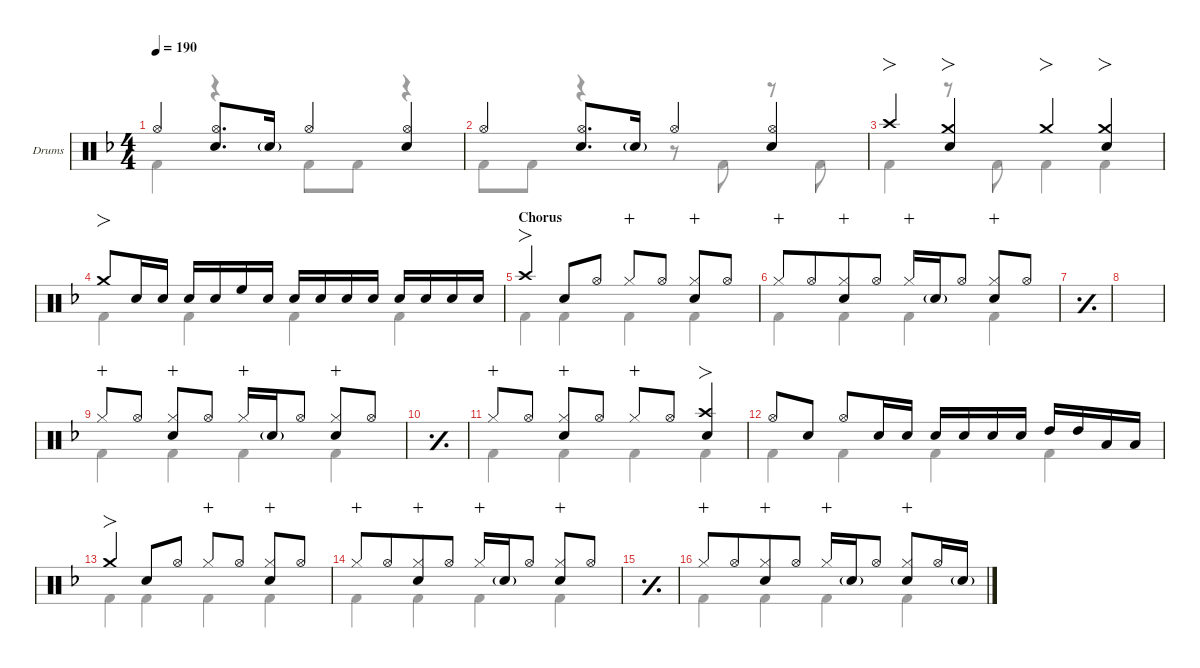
\defaultSystemsLayout 4
\hideDynamics
\bracketExtendMode nobrackets
\firstSystemTrackNameOrientation horizontal
\track ("Drums" "Drums") {defaultSystemsLayout 4 instrument percussion}
\staff {score}
\articulation defaults
\voice
\ts (4 4)
\tempo 190
\clef neutral
\scale
0.266618
\ks dminor "Hi-Hat (open)"{acc forcenatural}.4{dy f}
("Hi-Hat (open)"{acc forcenatural} "Snare (hit) 2"{acc forcenatural}).8{d} "Snare (hit) 2"{g acc forcenatural}.16{dy mf} "Hi-Hat (open)"{acc forcenatural}.4{dy f} ("Hi-Hat (open)"{acc forcenatural} "Snare (hit) 2"{acc forcenatural}).4 |
\scale
0.244461 "Hi-Hat (open)"{acc forcenatural}.4 ("Hi-Hat (open)"{acc forcenatural} "Snare (hit) 2"{acc forcenatural}).8{d} "Snare (hit) 2"{g acc forcenatural}.16{dy mf} "Hi-Hat (open)"{acc forcenatural}.4{dy f} ("Hi-Hat (open)"{acc forcenatural} "Snare (hit) 2"{acc forcenatural}).4 |
\scale
0.244461 "Crash high (hit)"{acc forcenatural}.4{fo} ("Snare (hit) 2"{acc forcenatural} "Crash medium (hit)"{acc forcenatural}).4{fo} "Crash medium (hit)"{acc forcenatural}.4{fo} ("Snare (hit) 2"{acc forcenatural} "Crash medium (hit)"{acc forcenatural}).4{fo} |
\scale
0.244461 "Crash medium (hit)"{acc forcenatural}.8{fo} "Snare (hit) 2"{acc forcenatural}.16 "Snare (hit) 2"{acc forcenatural}.16{dy mf beam split} "Snare (hit) 2"{acc forcenatural}.16{dy f} "Snare (hit) 2"{acc forcenatural}.16{dy mp} "High Floor Tom (hit)"{acc forcenatural}.16{dy f} "Snare (hit) 2"{acc forcenatural}.16{dy mp} "Snare (hit) 2"{acc forcenatural}.16{dy f} "Snare (hit) 2"{acc forcenatural}.16{dy mp} "Snare (hit) 2"{acc forcenatural}.16{dy mf} "Snare (hit) 2"{acc forcenatural}.16{dy mp beam split} "Snare (hit) 2"{acc forcenatural}.16{dy f} "Snare (hit) 2"{acc forcenatural}.16{dy mp} "Snare (hit) 2"{acc forcenatural}.16{dy mf} "Snare (hit) 2"{acc forcenatural}.16{dy mp} |
\section ("" "Chorus")
\scale
0.266618 "Crash high (hit)"{acc forcenatural}.4{fo dy f} "Snare (hit) 2"{acc forcenatural}.8 "Hi-Hat (open)"{acc forcenatural}.8 "Hi-Hat (closed)"{acc forcenatural}.8{dy mp wahc} "Hi-Hat (open)"{acc forcenatural}.8{dy f} ("Hi-Hat (closed)"{acc forcenatural} "Snare (hit) 2"{acc forcenatural}).8{wahc} "Hi-Hat (open)"{acc forcenatural}.8 |
\scale
0.244461 "Hi-Hat (closed)"{acc forcenatural}.8{dy mp wahc beam merge} "Hi-Hat (open)"{acc forcenatural}.8{dy f beam merge} ("Hi-Hat (closed)"{acc forcenatural} "Snare (hit) 2"{acc forcenatural}).8{wahc beam merge} "Hi-Hat (open)"{acc forcenatural}.8 "Hi-Hat (closed)"{acc forcenatural}.16{dy mp wahc} "Snare (hit) 2"{g acc forcenatural}.16{dy mf} "Hi-Hat (open)"{acc forcenatural}.8{dy f beam split} ("Hi-Hat (closed)"{acc forcenatural} "Snare (hit) 2"{acc forcenatural}).8{wahc} "Hi-Hat (open)"{acc forcenatural}.8 |
\simile simple
\scale
0.24446 |
\scale
0.244461 |
\simile none
\scale
0.266618 "Hi-Hat (closed)"{acc forcenatural}.8{dy mp wahc} "Hi-Hat (open)"{acc forcenatural}.8{dy f} ("Hi-Hat (closed)"{acc forcenatural} "Snare (hit) 2"{acc forcenatural}).8{wahc} "Hi-Hat (open)"{acc forcenatural}.8 "Hi-Hat (closed)"{acc forcenatural}.16{dy mp wahc} "Snare (hit) 2"{g acc forcenatural}.16{dy mf} "Hi-Hat (open)"{acc forcenatural}.8{dy f beam split} ("Hi-Hat (closed)"{acc forcenatural} "Snare (hit) 2"{acc forcenatural}).8{wahc} "Hi-Hat (open)"{acc forcenatural}.8 |
\simile simple
\scale
0.244461 |
\simile none
\scale
0.24446 "Hi-Hat (closed)"{acc forcenatural}.8{dy mp wahc} "Hi-Hat (open)"{acc forcenatural}.8{dy f} ("Hi-Hat (closed)"{acc forcenatural} "Snare (hit) 2"{acc forcenatural}).8{wahc} "Hi-Hat (open)"{acc forcenatural}.8 "Hi-Hat (closed)"{acc forcenatural}.8{dy mp wahc} "Hi-Hat (open)"{acc forcenatural}.8{dy f} ("Crash high (hit)"{acc forcenatural} "Snare (hit) 2"{acc forcenatural}).4{fo} |
\scale
0.244461 "Hi-Hat (open)"{acc forcenatural}.8 "Snare (hit) 2"{acc forcenatural}.8{beam split} "Hi-Hat (open)"{acc forcenatural}.8{beam merge} "Snare (hit) 2"{acc forcenatural}.16{dy mf} "Snare (hit) 2"{acc forcenatural}.16{dy mp} "Snare (hit) 2"{acc forcenatural}.16{dy f} "Snare (hit) 2"{acc forcenatural}.16{dy mp} "Snare (hit) 2"{acc forcenatural}.16{dy mf} "Snare (hit) 2"{acc forcenatural}.16{dy mp beam split} "High Tom (hit)"{acc forcenatural}.16{dy f} "High Tom (hit)"{acc forcenatural}.16 "Low Tom (hit)"{acc forcenatural}.16 "Low Tom (hit)"{acc forcenatural}.16 |
\scale
0.266618 "Crash medium (hit)"{acc forcenatural}.4{fo} "Snare (hit) 2"{acc forcenatural}.8 "Hi-Hat (open)"{acc forcenatural}.8 "Hi-Hat (closed)"{acc forcenatural}.8{dy mp wahc} "Hi-Hat (open)"{acc forcenatural}.8{dy f} ("Hi-Hat (closed)"{acc forcenatural} "Snare (hit) 2"{acc forcenatural}).8{wahc} "Hi-Hat (open)"{acc forcenatural}.8 |
\scale
0.244461 "Hi-Hat (closed)"{acc forcenatural}.8{dy mp wahc beam merge} "Hi-Hat (open)"{acc forcenatural}.8{dy f beam merge} ("Hi-Hat (closed)"{acc forcenatural} "Snare (hit) 2"{acc forcenatural}).8{wahc beam merge} "Hi-Hat (open)"{acc forcenatural}.8 "Hi-Hat (closed)"{acc forcenatural}.16{dy mp wahc} "Snare (hit) 2"{g acc forcenatural}.16{dy mf} "Hi-Hat (open)"{acc forcenatural}.8{dy f beam split} ("Hi-Hat (closed)"{acc forcenatural} "Snare (hit) 2"{acc forcenatural}).8{wahc} "Hi-Hat (open)"{acc forcenatural}.8 |
\simile simple
\scale
0.24446 |
\simile none
\scale
0.244461 "Hi-Hat (closed)"{acc forcenatural}.8{dy mp wahc beam merge} "Hi-Hat (open)"{acc forcenatural}.8{dy f beam merge} ("Hi-Hat (closed)"{acc forcenatural} "Snare (hit) 2"{acc forcenatural}).8{wahc beam merge} "Hi-Hat (open)"{acc forcenatural}.8 "Hi-Hat (closed)"{acc forcenatural}.16{dy mp wahc} "Snare (hit) 2"{g acc forcenatural}.16{dy mf} "Hi-Hat (open)"{acc forcenatural}.8{dy f beam split} ("Hi-Hat (closed)"{acc forcenatural} "Snare (hit) 2"{acc forcenatural}).8{wahc} "Hi-Hat (open)"{acc forcenatural}.16 "Snare (hit) 2"{g acc forcenatural}.16{dy mf}
\voice
\clef neutral
\ottava regular
\simile none
\scale
0.266618
\ks dminor "Kick (hit) 2"{acc forcenatural}.4{dy f}
r.4 "Kick (hit) 2"{acc forcenatural}.8 "Kick (hit) 2"{acc forcenatural}.8 r.4 |
\scale
0.244461 "Kick (hit) 2"{acc forcenatural}.8 "Kick (hit) 2"{acc forcenatural}.8 r.4 r.8 "Kick (hit) 2"{acc forcenatural}.8 r.8 "Kick (hit) 2"{acc forcenatural}.8 |
\scale
0.244461 "Kick (hit) 2"{acc forcenatural}.4 r.8 "Kick (hit) 2"{acc forcenatural}.8 "Kick (hit) 2"{acc forcenatural}.4 "Kick (hit) 2"{acc forcenatural}.4 |
\scale
0.244461 "Kick (hit) 2"{acc forcenatural}.4 "Kick (hit) 2"{acc forcenatural}.4 "Kick (hit) 2"{acc forcenatural}.4 "Kick (hit) 2"{acc forcenatural}.4 |
\scale
0.266618 "Kick (hit) 2"{acc forcenatural}.4 "Kick (hit) 2"{acc forcenatural}.4 "Kick (hit) 2"{acc forcenatural}.4 "Kick (hit) 2"{acc forcenatural}.4 |
\scale
0.244461 "Kick (hit) 2"{acc forcenatural}.4 "Kick (hit) 2"{acc forcenatural}.4 "Kick (hit) 2"{acc forcenatural}.4 "Kick (hit) 2"{acc forcenatural}.4 |
\simile simple
\scale
0.24446 |
\scale
0.244461 |
\simile none
\scale
0.266618 "Kick (hit) 2"{acc forcenatural}.4 "Kick (hit) 2"{acc forcenatural}.4 "Kick (hit) 2"{acc forcenatural}.4 "Kick (hit) 2"{acc forcenatural}.4 |
\simile simple
\scale
0.244461 |
\simile none
\scale
0.24446 "Kick (hit) 2"{acc forcenatural}.4 "Kick (hit) 2"{acc forcenatural}.4 "Kick (hit) 2"{acc forcenatural}.4 "Kick (hit) 2"{acc forcenatural}.4 |
\scale
0.244461 "Kick (hit) 2"{acc forcenatural}.4 "Kick (hit) 2"{acc forcenatural}.4 "Kick (hit) 2"{acc forcenatural}.4 "Kick (hit) 2"{acc forcenatural}.4 |
\scale
0.266618 "Kick (hit) 2"{acc forcenatural}.4 "Kick (hit) 2"{acc forcenatural}.4 "Kick (hit) 2"{acc forcenatural}.4 "Kick (hit) 2"{acc forcenatural}.4 |
\scale
0.244461 "Kick (hit) 2"{acc forcenatural}.4 "Kick (hit) 2"{acc forcenatural}.4 "Kick (hit) 2"{acc forcenatural}.4 "Kick (hit) 2"{acc forcenatural}.4 |
\simile simple
\scale
0.24446 |
\simile none
\scale
0.244461 "Kick (hit) 2"{acc forcenatural}.4 "Kick (hit) 2"{acc forcenatural}.4 "Kick (hit) 2"{acc forcenatural}.4 "Kick (hit) 2"{acc forcenatural}.4
